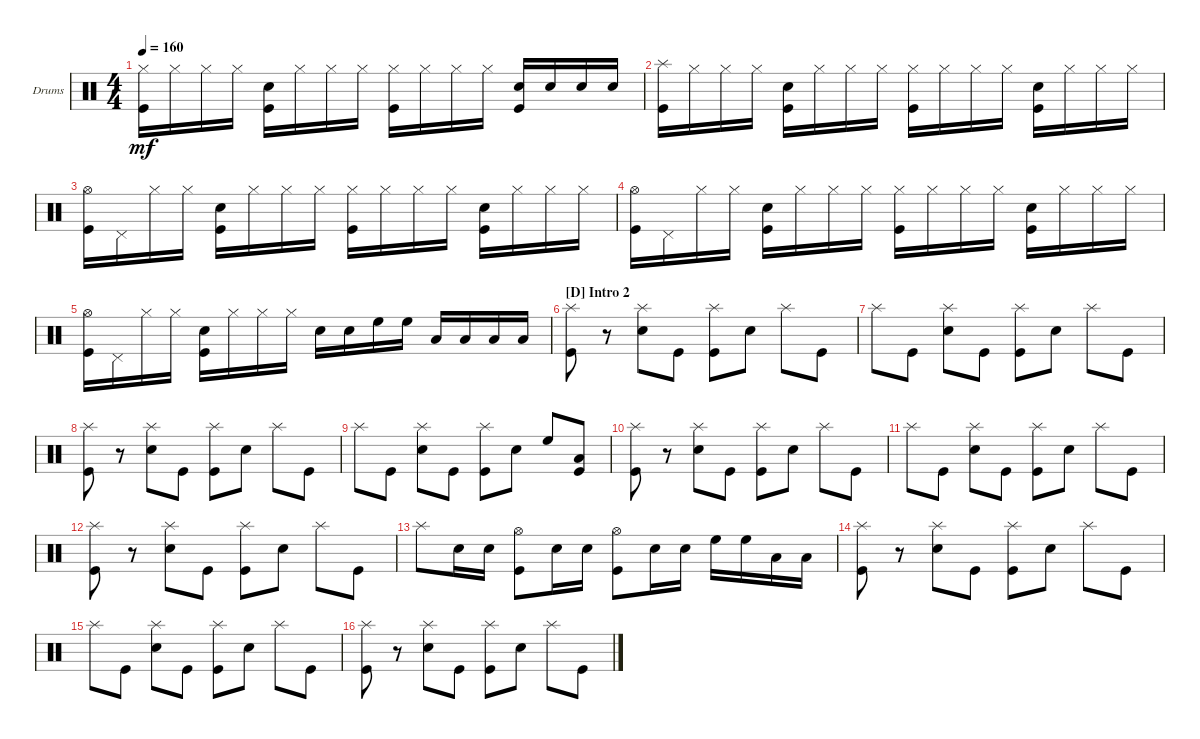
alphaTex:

\bracketExtendMode groupsimilarinstruments
\firstSystemTrackNameOrientation horizontal
\otherSystemsTrackNameOrientation horizontal
\track ("Drumkit" "Drums") {instrument percussion}
\staff {score}
\articulation defaults
\ts (4 4)
\tempo 160
\clef neutral
\ks c
("Kick (hit)" "Hi-Hat (closed)").16{dy mf} "Hi-Hat (closed)".16 "Hi-Hat (closed)".16 "Hi-Hat (closed)".16 ("Snare (hit) 2" "Kick (hit)").16 "Hi-Hat (closed)".16 "Hi-Hat (closed)".16 "Hi-Hat (closed)".16 ("Kick (hit)" "Hi-Hat (closed)").16 "Hi-Hat (closed)".16 "Hi-Hat (closed)".16 "Hi-Hat (closed)".16 ("Snare (hit) 2" "Kick (hit)").16 "Snare (hit) 2".16 "Snare (hit) 2".16 "Snare (hit) 2".16 |
("Kick (hit)" "Splash (hit)").16 "Hi-Hat (closed)".16 "Hi-Hat (closed)".16 "Hi-Hat (closed)".16 ("Snare (hit) 2" "Kick (hit)").16 "Hi-Hat (closed)".16 "Hi-Hat (closed)".16 "Hi-Hat (closed)".16 ("Kick (hit)" "Hi-Hat (closed)").16 "Hi-Hat (closed)".16 "Hi-Hat (closed)".16 "Hi-Hat (closed)".16 ("Snare (hit) 2" "Kick (hit)").16 "Hi-Hat (closed)".16 "Hi-Hat (closed)".16 "Hi-Hat (closed)".16 |
("Kick (hit)" "Hi-Hat (open)").16 "Pedal Hi-Hat (hit)".16 "Hi-Hat (closed)".16 "Hi-Hat (closed)".16 ("Snare (hit) 2" "Kick (hit)").16 "Hi-Hat (closed)".16 "Hi-Hat (closed)".16 "Hi-Hat (closed)".16 ("Kick (hit)" "Hi-Hat (closed)").16 "Hi-Hat (closed)".16 "Hi-Hat (closed)".16 "Hi-Hat (closed)".16 ("Snare (hit) 2" "Kick (hit)").16 "Hi-Hat (closed)".16 "Hi-Hat (closed)".16 "Hi-Hat (closed)".16 |
("Kick (hit)" "Hi-Hat (open)").16 "Pedal Hi-Hat (hit)".16 "Hi-Hat (closed)".16 "Hi-Hat (closed)".16 ("Snare (hit) 2" "Kick (hit)").16 "Hi-Hat (closed)".16 "Hi-Hat (closed)".16 "Hi-Hat (closed)".16 ("Kick (hit)" "Hi-Hat (closed)").16 "Hi-Hat (closed)".16 "Hi-Hat (closed)".16 "Hi-Hat (closed)".16 ("Snare (hit) 2" "Kick (hit)").16 "Hi-Hat (closed)".16 "Hi-Hat (closed)".16 "Hi-Hat (closed)".16 |
("Kick (hit)" "Hi-Hat (open)").16 "Pedal Hi-Hat (hit)".16 "Hi-Hat (closed)".16 "Hi-Hat (closed)".16 ("Snare (hit) 2" "Kick (hit)").16 "Hi-Hat (closed)".16 "Hi-Hat (closed)".16 "Hi-Hat (closed)".16 "Snare (hit) 2".16 "Snare (hit) 2".16 "High Floor Tom (hit)".16 "High Floor Tom (hit)".16 "Low Tom (hit)".16 "Low Tom (hit)".16 "Low Tom (hit)".16 "Low Tom (hit)".16 |
\section ("D" "Intro 2")
("Kick (hit)" "Splash (hit)").8 r.8 ("Snare (hit) 2" "Splash (hit)").8 "Kick (hit)".8 ("Kick (hit)" "Splash (hit)").8 "Snare (hit) 2".8 "Splash (hit)".8 "Kick (hit)".8 |
"Splash (hit)".8 "Kick (hit)".8 ("Snare (hit) 2" "Splash (hit)").8 "Kick (hit)".8 ("Kick (hit)" "Splash (hit)").8 "Snare (hit) 2".8 "Splash (hit)".8 "Kick (hit)".8 |
("Kick (hit)" "Splash (hit)").8 r.8 ("Snare (hit) 2" "Splash (hit)").8 "Kick (hit)".8 ("Kick (hit)" "Splash (hit)").8 "Snare (hit) 2".8 "Splash (hit)".8 "Kick (hit)".8 |
"Splash (hit)".8 "Kick (hit)".8 ("Snare (hit) 2" "Splash (hit)").8 "Kick (hit)".8 ("Kick (hit)" "Splash (hit)").8 "Snare (hit) 2".8 "High Floor Tom (hit)".8 ("Kick (hit)" "Low Tom (hit)").8 |
("Kick (hit)" "Splash (hit)").8 r.8 ("Snare (hit) 2" "Splash (hit)").8 "Kick (hit)".8 ("Kick (hit)" "Splash (hit)").8 "Snare (hit) 2".8 "Splash (hit)".8 "Kick (hit)".8 |
"Splash (hit)".8 "Kick (hit)".8 ("Snare (hit) 2" "Splash (hit)").8 "Kick (hit)".8 ("Kick (hit)" "Splash (hit)").8 "Snare (hit) 2".8 "Splash (hit)".8 "Kick (hit)".8 |
("Kick (hit)" "Splash (hit)").8 r.8 ("Snare (hit) 2" "Splash (hit)").8 "Kick (hit)".8 ("Kick (hit)" "Splash (hit)").8 "Snare (hit) 2".8 "Splash (hit)".8 "Kick (hit)".8 |
"Splash (hit)".8 "Snare (hit) 2".16 "Snare (hit) 2".16 ("Kick (hit)" "Hi-Hat (open)").8 "Snare (hit) 2".16 "Snare (hit) 2".16 ("Hi-Hat (open)" "Kick (hit)").8 "Snare (hit) 2".16 "Snare (hit) 2".16 "High Floor Tom (hit)".16 "High Floor Tom (hit)".16 "Low Tom (hit)".16 "Low Tom (hit)".16 |
("Kick (hit)" "Splash (hit)").8 r.8 ("Snare (hit) 2" "Splash (hit)").8 "Kick (hit)".8 ("Kick (hit)" "Splash (hit)").8 "Snare (hit) 2".8 "Splash (hit)".8 "Kick (hit)".8 |
"Splash (hit)".8 "Kick (hit)".8 ("Snare (hit) 2" "Splash (hit)").8 "Kick (hit)".8 ("Kick (hit)" "Splash (hit)").8 "Snare (hit) 2".8 "Splash (hit)".8 "Kick (hit)".8 |
("Kick (hit)" "Splash (hit)").8 r.8 ("Snare (hit) 2" "Splash (hit)").8 "Kick (hit)".8 ("Kick (hit)" "Splash (hit)").8 "Snare (hit) 2".8 "Splash (hit)".8 "Kick (hit)".8
